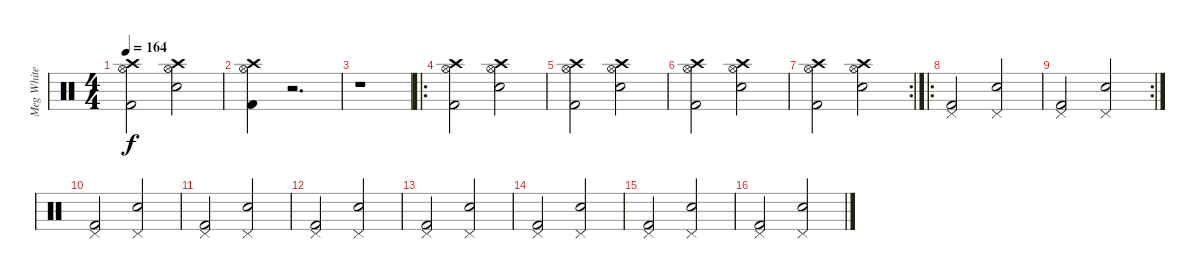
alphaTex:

\track ("Meg White" "Meg White") {instrument percussion}
\staff {score}
\articulation defaults
\ts (4 4)
\tempo 164
\clef neutral
\ks c
("Crash high (hit)" "Hi-Hat (open)" "Kick (hit) 2").2{dy f} ("Crash high (hit)" "Hi-Hat (open)" "Electric Snare (hit)").2 |
("Crash high (hit)" "Hi-Hat (open)" "Kick (hit) 2").4 r.2{d} |
r.1 |
\ro
("Crash high (hit)" "Hi-Hat (open)" "Kick (hit) 2").2 ("Crash high (hit)" "Hi-Hat (open)" "Electric Snare (hit)").2 |
("Crash high (hit)" "Hi-Hat (open)" "Kick (hit) 2").2 ("Crash high (hit)" "Hi-Hat (open)" "Electric Snare (hit)").2 |
("Crash high (hit)" "Hi-Hat (open)" "Kick (hit) 2").2 ("Crash high (hit)" "Hi-Hat (open)" "Electric Snare (hit)").2 |
\rc 2
("Crash high (hit)" "Hi-Hat (open)" "Kick (hit) 2").2 ("Crash high (hit)" "Hi-Hat (open)" "Electric Snare (hit)").2 |
\ro
("Pedal Hi-Hat (hit)" "Kick (hit) 2").2 ("Pedal Hi-Hat (hit)" "Electric Snare (hit)").2 |
\rc 2
("Pedal Hi-Hat (hit)" "Kick (hit) 2").2 ("Pedal Hi-Hat (hit)" "Electric Snare (hit)").2 |
("Pedal Hi-Hat (hit)" "Kick (hit) 2").2 ("Pedal Hi-Hat (hit)" "Electric Snare (hit)").2 |
("Pedal Hi-Hat (hit)" "Kick (hit) 2").2 ("Pedal Hi-Hat (hit)" "Electric Snare (hit)").2 |
("Pedal Hi-Hat (hit)" "Kick (hit) 2").2 ("Pedal Hi-Hat (hit)" "Electric Snare (hit)").2 |
("Pedal Hi-Hat (hit)" "Kick (hit) 2").2 ("Pedal Hi-Hat (hit)" "Electric Snare (hit)").2 |
("Pedal Hi-Hat (hit)" "Kick (hit) 2").2 ("Pedal Hi-Hat (hit)" "Electric Snare (hit)").2 |
("Pedal Hi-Hat (hit)" "Kick (hit) 2").2 ("Pedal Hi-Hat (hit)" "Electric Snare (hit)").2 |
("Pedal Hi-Hat (hit)" "Kick (hit) 2").2 ("Pedal Hi-Hat (hit)" "Electric Snare (hit)").2
